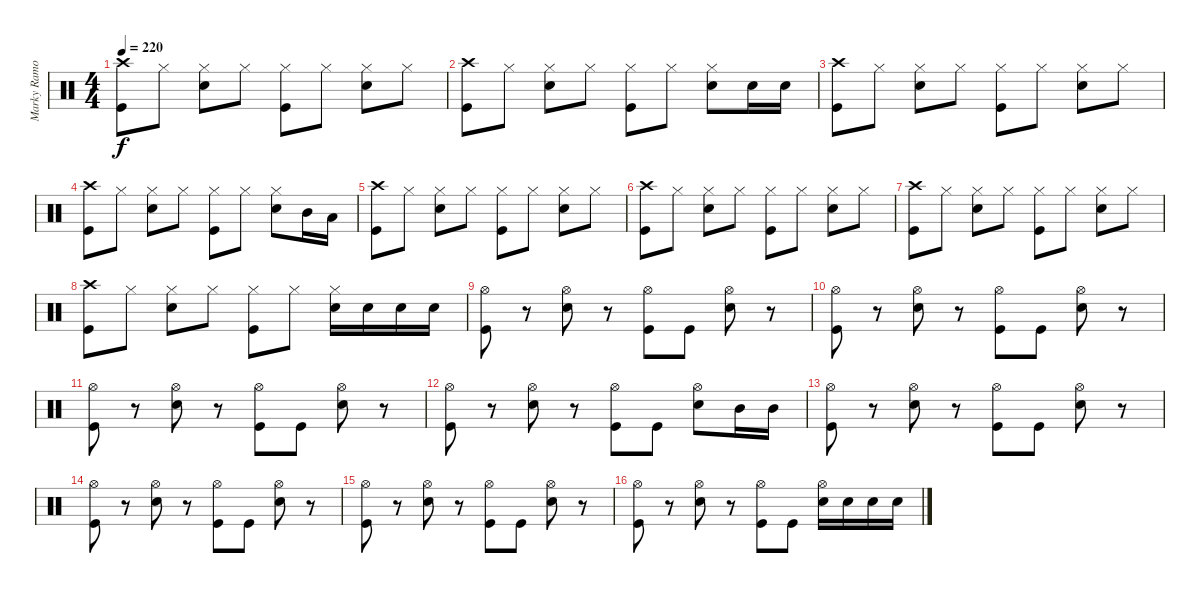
\track ("Marky Ramone - Drums" "Marky Ramo") {instrument percussion}
\staff {score}
\articulation defaults
\ts (4 4)
\tempo 220
\clef neutral
\ks c
("Crash high (hit)" "Kick (hit)").8{dy f} "Hi-Hat (closed)".8 ("Hi-Hat (closed)" "Electric Snare (hit)").8 "Hi-Hat (closed)".8 ("Hi-Hat (closed)" "Kick (hit)").8 "Hi-Hat (closed)".8 ("Hi-Hat (closed)" "Electric Snare (hit)").8 "Hi-Hat (closed)".8 |
("Crash high (hit)" "Kick (hit)").8 "Hi-Hat (closed)".8 ("Hi-Hat (closed)" "Electric Snare (hit)").8 "Hi-Hat (closed)".8 ("Hi-Hat (closed)" "Kick (hit)").8 "Hi-Hat (closed)".8 ("Hi-Hat (closed)" "Electric Snare (hit)").8 "Electric Snare (hit)".16 "Electric Snare (hit)".16 |
("Crash high (hit)" "Kick (hit)").8 "Hi-Hat (closed)".8 ("Hi-Hat (closed)" "Electric Snare (hit)").8 "Hi-Hat (closed)".8 ("Hi-Hat (closed)" "Kick (hit)").8 "Hi-Hat (closed)".8 ("Hi-Hat (closed)" "Electric Snare (hit)").8 "Hi-Hat (closed)".8 |
("Crash high (hit)" "Kick (hit)").8 "Hi-Hat (closed)".8 ("Hi-Hat (closed)" "Electric Snare (hit)").8 "Hi-Hat (closed)".8 ("Hi-Hat (closed)" "Kick (hit)").8 "Hi-Hat (closed)".8 ("Hi-Hat (closed)" "Electric Snare (hit)").8 "Mid Tom (hit)".16 "Low Tom (hit)".16 |
("Crash high (hit)" "Kick (hit)").8 "Hi-Hat (closed)".8 ("Hi-Hat (closed)" "Electric Snare (hit)").8 "Hi-Hat (closed)".8 ("Hi-Hat (closed)" "Kick (hit)").8 "Hi-Hat (closed)".8 ("Hi-Hat (closed)" "Electric Snare (hit)").8 "Hi-Hat (closed)".8 |
("Crash high (hit)" "Kick (hit)").8 "Hi-Hat (closed)".8 ("Hi-Hat (closed)" "Electric Snare (hit)").8 "Hi-Hat (closed)".8 ("Hi-Hat (closed)" "Kick (hit)").8 "Hi-Hat (closed)".8 ("Hi-Hat (closed)" "Electric Snare (hit)").8 "Hi-Hat (closed)".8 |
("Crash high (hit)" "Kick (hit)").8 "Hi-Hat (closed)".8 ("Hi-Hat (closed)" "Electric Snare (hit)").8 "Hi-Hat (closed)".8 ("Hi-Hat (closed)" "Kick (hit)").8 "Hi-Hat (closed)".8 ("Hi-Hat (closed)" "Electric Snare (hit)").8 "Hi-Hat (closed)".8 |
("Crash high (hit)" "Kick (hit)").8 "Hi-Hat (closed)".8 ("Hi-Hat (closed)" "Electric Snare (hit)").8 "Hi-Hat (closed)".8 ("Hi-Hat (closed)" "Kick (hit)").8 "Hi-Hat (closed)".8 ("Hi-Hat (closed)" "Electric Snare (hit)").16 "Electric Snare (hit)".16 "Electric Snare (hit)".16 "Electric Snare (hit)".16 |
("Hi-Hat (open)" "Kick (hit)").8 r.8 ("Hi-Hat (open)" "Electric Snare (hit)").8 r.8 ("Hi-Hat (open)" "Kick (hit)").8 "Kick (hit)".8 ("Hi-Hat (open)" "Electric Snare (hit)").8 r.8 |
("Hi-Hat (open)" "Kick (hit)").8 r.8 ("Hi-Hat (open)" "Electric Snare (hit)").8 r.8 ("Hi-Hat (open)" "Kick (hit)").8 "Kick (hit)".8 ("Hi-Hat (open)" "Electric Snare (hit)").8 r.8 |
("Hi-Hat (open)" "Kick (hit)").8 r.8 ("Hi-Hat (open)" "Electric Snare (hit)").8 r.8 ("Hi-Hat (open)" "Kick (hit)").8 "Kick (hit)".8 ("Hi-Hat (open)" "Electric Snare (hit)").8 r.8 |
("Hi-Hat (open)" "Kick (hit)").8 r.8 ("Hi-Hat (open)" "Electric Snare (hit)").8 r.8 ("Hi-Hat (open)" "Kick (hit)").8 "Kick (hit)".8 ("Hi-Hat (open)" "Electric Snare (hit)").8 "Mid Tom (hit)".16 "Mid Tom (hit)".16 |
("Hi-Hat (open)" "Kick (hit)").8 r.8 ("Hi-Hat (open)" "Electric Snare (hit)").8 r.8 ("Hi-Hat (open)" "Kick (hit)").8 "Kick (hit)".8 ("Hi-Hat (open)" "Electric Snare (hit)").8 r.8 |
("Hi-Hat (open)" "Kick (hit)").8 r.8 ("Hi-Hat (open)" "Electric Snare (hit)").8 r.8 ("Hi-Hat (open)" "Kick (hit)").8 "Kick (hit)".8 ("Hi-Hat (open)" "Electric Snare (hit)").8 r.8 |
("Hi-Hat (open)" "Kick (hit)").8 r.8 ("Hi-Hat (open)" "Electric Snare (hit)").8 r.8 ("Hi-Hat (open)" "Kick (hit)").8 "Kick (hit)".8 ("Hi-Hat (open)" "Electric Snare (hit)").8 r.8 |
("Hi-Hat (open)" "Kick (hit)").8 r.8 ("Hi-Hat (open)" "Electric Snare (hit)").8 r.8 ("Hi-Hat (open)" "Kick (hit)").8 "Kick (hit)".8 ("Hi-Hat (open)" "Electric Snare (hit)").16 "Electric Snare (hit)".16 "Electric Snare (hit)".16 "Electric Snare (hit)".16
